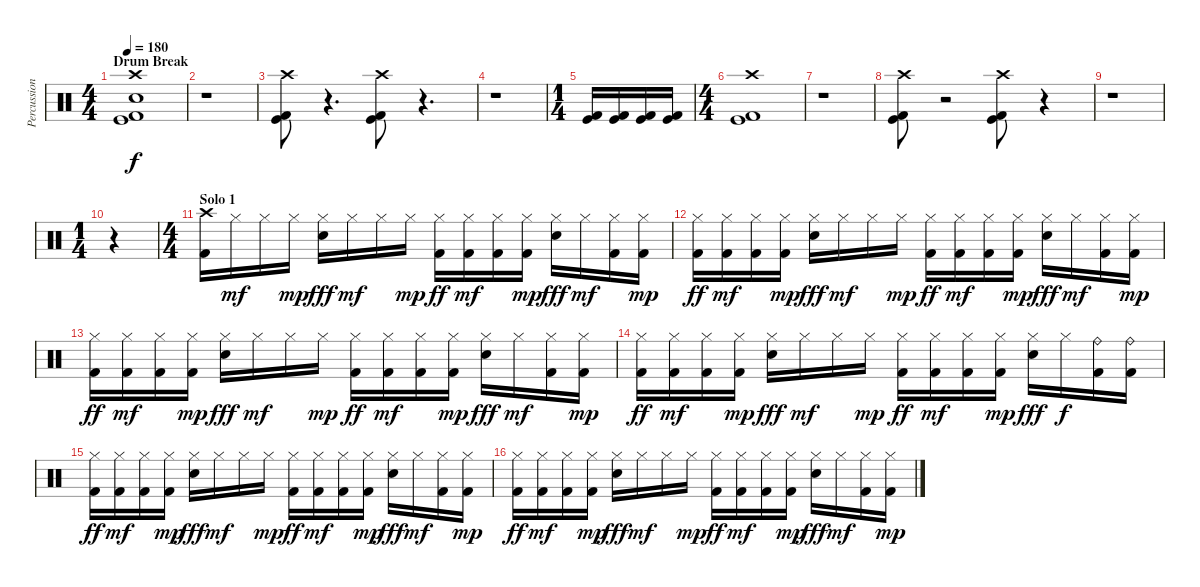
\track ("Percussion" "Percussion") {instrument percussion}
\staff {score}
\articulation defaults
\ts (4 4)
\section ("" "Drum Break")
\tempo 180
\clef neutral
\ks c
("Crash high (hit)" "Snare (hit) 2" "Kick (hit)" "Kick (hit) 2").1{dy f} |
r.1 |
("Crash high (hit)" "Kick (hit)" "Kick (hit) 2").8 r.4{d} ("Crash high (hit)" "Kick (hit)" "Kick (hit) 2").8 r.4{d} |
r.1 |
\ts (1 4)
("Kick (hit) 2" "Kick (hit)").16 ("Kick (hit) 2" "Kick (hit)").16 ("Kick (hit) 2" "Kick (hit)").16 ("Kick (hit) 2" "Kick (hit)").16 |
\ts (4 4)
("Crash high (hit)" "Kick (hit)" "Kick (hit) 2").1 |
r.1 |
("Crash high (hit)" "Kick (hit)" "Kick (hit) 2").8 r.2 ("Crash high (hit)" "Kick (hit)" "Kick (hit) 2").8 r.4 |
r.1 |
\ts (1 4)
r.4 |
\ts (4 4)
\section ("" "Solo 1")
("Crash high (hit)" "Kick (hit) 2").16 "Hi-Hat (closed)".16{dy mf} "Hi-Hat (closed)".16 "Hi-Hat (closed)".16{dy mp} ("Hi-Hat (closed)" "Snare (hit) 2").16{dy fff} "Hi-Hat (closed)".16{dy mf} "Hi-Hat (closed)".16 "Hi-Hat (closed)".16{dy mp} ("Hi-Hat (closed)" "Kick (hit) 2").16{dy ff} ("Hi-Hat (closed)" "Kick (hit) 2").16{dy mf} ("Hi-Hat (closed)" "Kick (hit) 2").16 ("Hi-Hat (closed)" "Kick (hit) 2").16{dy mp} ("Hi-Hat (closed)" "Snare (hit) 2").16{dy fff} "Hi-Hat (closed)".16{dy mf} ("Hi-Hat (closed)" "Kick (hit) 2").16 ("Hi-Hat (closed)" "Kick (hit) 2").16{dy mp} |
("Hi-Hat (closed)" "Kick (hit) 2").16{dy ff} ("Hi-Hat (closed)" "Kick (hit) 2").16{dy mf} ("Hi-Hat (closed)" "Kick (hit) 2").16 ("Hi-Hat (closed)" "Kick (hit) 2").16{dy mp} ("Hi-Hat (closed)" "Snare (hit) 2").16{dy fff} "Hi-Hat (closed)".16{dy mf} "Hi-Hat (closed)".16 "Hi-Hat (closed)".16{dy mp} ("Hi-Hat (closed)" "Kick (hit) 2").16{dy ff} ("Hi-Hat (closed)" "Kick (hit) 2").16{dy mf} ("Hi-Hat (closed)" "Kick (hit) 2").16 ("Hi-Hat (closed)" "Kick (hit) 2").16{dy mp} ("Hi-Hat (closed)" "Snare (hit) 2").16{dy fff} "Hi-Hat (closed)".16{dy mf} ("Hi-Hat (closed)" "Kick (hit) 2").16 ("Hi-Hat (closed)" "Kick (hit) 2").16{dy mp} |
("Hi-Hat (closed)" "Kick (hit) 2").16{dy ff} ("Hi-Hat (closed)" "Kick (hit) 2").16{dy mf} ("Hi-Hat (closed)" "Kick (hit) 2").16 ("Hi-Hat (closed)" "Kick (hit) 2").16{dy mp} ("Hi-Hat (closed)" "Snare (hit) 2").16{dy fff} "Hi-Hat (closed)".16{dy mf} "Hi-Hat (closed)".16 "Hi-Hat (closed)".16{dy mp} ("Hi-Hat (closed)" "Kick (hit) 2").16{dy ff} ("Hi-Hat (closed)" "Kick (hit) 2").16{dy mf} ("Hi-Hat (closed)" "Kick (hit) 2").16 ("Hi-Hat (closed)" "Kick (hit) 2").16{dy mp} ("Hi-Hat (closed)" "Snare (hit) 2").16{dy fff} "Hi-Hat (closed)".16{dy mf} ("Hi-Hat (closed)" "Kick (hit) 2").16 ("Hi-Hat (closed)" "Kick (hit) 2").16{dy mp} |
("Hi-Hat (closed)" "Kick (hit) 2").16{dy ff} ("Hi-Hat (closed)" "Kick (hit) 2").16{dy mf} ("Hi-Hat (closed)" "Kick (hit) 2").16 ("Hi-Hat (closed)" "Kick (hit) 2").16{dy mp} ("Hi-Hat (closed)" "Snare (hit) 2").16{dy fff} "Hi-Hat (closed)".16{dy mf} "Hi-Hat (closed)".16 "Hi-Hat (closed)".16{dy mp} ("Hi-Hat (closed)" "Kick (hit) 2").16{dy ff} ("Hi-Hat (closed)" "Kick (hit) 2").16{dy mf} ("Hi-Hat (closed)" "Kick (hit) 2").16 ("Hi-Hat (closed)" "Kick (hit) 2").16{dy mp} ("Hi-Hat (closed)" "Snare (hit) 2").16{dy fff} "Hi-Hat (closed)".16{dy f} ("Ride (bell)" "Kick (hit) 2").16 ("Ride (bell)" "Kick (hit) 2").16 |
("Hi-Hat (closed)" "Kick (hit) 2").16{dy ff} ("Hi-Hat (closed)" "Kick (hit) 2").16{dy mf} ("Hi-Hat (closed)" "Kick (hit) 2").16 ("Hi-Hat (closed)" "Kick (hit) 2").16{dy mp} ("Hi-Hat (closed)" "Snare (hit) 2").16{dy fff} "Hi-Hat (closed)".16{dy mf} "Hi-Hat (closed)".16 "Hi-Hat (closed)".16{dy mp} ("Hi-Hat (closed)" "Kick (hit) 2").16{dy ff} ("Hi-Hat (closed)" "Kick (hit) 2").16{dy mf} ("Hi-Hat (closed)" "Kick (hit) 2").16 ("Hi-Hat (closed)" "Kick (hit) 2").16{dy mp} ("Hi-Hat (closed)" "Snare (hit) 2").16{dy fff} "Hi-Hat (closed)".16{dy mf} ("Hi-Hat (closed)" "Kick (hit) 2").16 ("Hi-Hat (closed)" "Kick (hit) 2").16{dy mp} |
("Hi-Hat (closed)" "Kick (hit) 2").16{dy ff} ("Hi-Hat (closed)" "Kick (hit) 2").16{dy mf} ("Hi-Hat (closed)" "Kick (hit) 2").16 ("Hi-Hat (closed)" "Kick (hit) 2").16{dy mp} ("Hi-Hat (closed)" "Snare (hit) 2").16{dy fff} "Hi-Hat (closed)".16{dy mf} "Hi-Hat (closed)".16 "Hi-Hat (closed)".16{dy mp} ("Hi-Hat (closed)" "Kick (hit) 2").16{dy ff} ("Hi-Hat (closed)" "Kick (hit) 2").16{dy mf} ("Hi-Hat (closed)" "Kick (hit) 2").16 ("Hi-Hat (closed)" "Kick (hit) 2").16{dy mp} ("Hi-Hat (closed)" "Snare (hit) 2").16{dy fff} "Hi-Hat (closed)".16{dy mf} ("Hi-Hat (closed)" "Kick (hit) 2").16 ("Hi-Hat (closed)" "Kick (hit) 2").16{dy mp}
